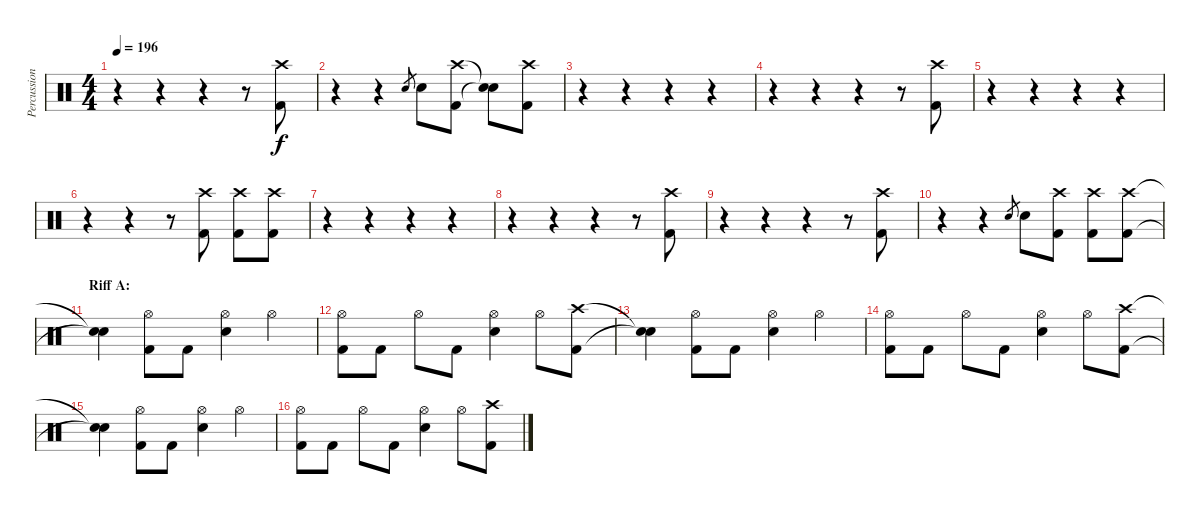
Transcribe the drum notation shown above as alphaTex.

\track ("Percussion" "Percussion") {instrument percussion}
\staff {score}
\articulation defaults
\ts (4 4)
\tempo 196
\clef neutral
\ks c
r.4{dy f} r.4 r.4 r.8 ("Crash high (hit)" "Kick (hit) 2").8 |
r.4 r.4 "Snare (hit) 2".8{gr} "Snare (hit) 2".8 ("Crash high (hit)" "Kick (hit) 2").8 ("Snare (hit)"{t} "Snare (hit)"{t}).8 ("Crash high (hit)" "Kick (hit) 2").8 |
r.4 r.4 r.4 r.4 |
r.4 r.4 r.4 r.8 ("Crash high (hit)" "Kick (hit) 2").8 |
r.4 r.4 r.4 r.4 |
r.4 r.4 r.8 ("Crash high (hit)" "Kick (hit) 2").8 ("Crash high (hit)" "Kick (hit) 2").8 ("Crash high (hit)" "Kick (hit) 2").8 |
r.4 r.4 r.4 r.4 |
r.4 r.4 r.4 r.8 ("Crash high (hit)" "Kick (hit) 2").8 |
r.4 r.4 r.4 r.8 ("Crash high (hit)" "Kick (hit) 2").8 |
r.4 r.4 "Snare (hit) 2".8{gr} "Snare (hit) 2".8 ("Crash high (hit)" "Kick (hit) 2").8 ("Crash high (hit)" "Kick (hit) 2").8 ("Crash high (hit)" "Kick (hit) 2").8 |
\section ("" "Riff A:")
("Snare (hit)"{t} "Snare (hit)"{t}).4 ("Hi-Hat (open)" "Kick (hit) 2").8 "Kick (hit) 2".8 ("Hi-Hat (open)" "Snare (hit) 2").4 "Hi-Hat (open)".4 |
("Hi-Hat (open)" "Kick (hit) 2").8 "Kick (hit) 2".8 "Hi-Hat (open)".8 "Kick (hit) 2".8 ("Hi-Hat (open)" "Snare (hit) 2").4 "Hi-Hat (open)".8 ("Crash high (hit)" "Kick (hit) 2").8 |
("Snare (hit)"{t} "Snare (hit)"{t}).4 ("Hi-Hat (open)" "Kick (hit) 2").8 "Kick (hit) 2".8 ("Hi-Hat (open)" "Snare (hit) 2").4 "Hi-Hat (open)".4 |
("Hi-Hat (open)" "Kick (hit) 2").8 "Kick (hit) 2".8 "Hi-Hat (open)".8 "Kick (hit) 2".8 ("Hi-Hat (open)" "Snare (hit) 2").4 "Hi-Hat (open)".8 ("Crash high (hit)" "Kick (hit) 2").8 |
("Snare (hit)"{t} "Snare (hit)"{t}).4 ("Hi-Hat (open)" "Kick (hit) 2").8 "Kick (hit) 2".8 ("Hi-Hat (open)" "Snare (hit) 2").4 "Hi-Hat (open)".4 |
("Hi-Hat (open)" "Kick (hit) 2").8 "Kick (hit) 2".8 "Hi-Hat (open)".8 "Kick (hit) 2".8 ("Hi-Hat (open)" "Snare (hit) 2").4 "Hi-Hat (open)".8 ("Crash high (hit)" "Kick (hit) 2").8
